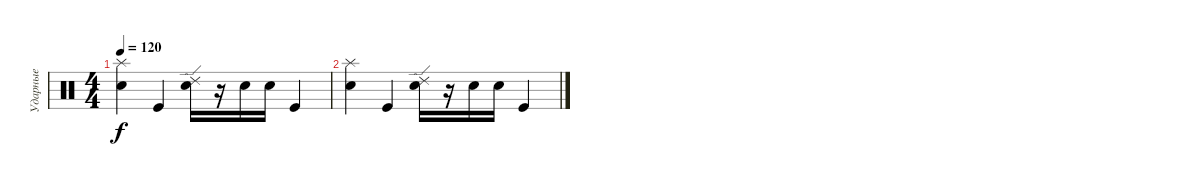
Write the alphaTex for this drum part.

\track ("Ударные" "Ударные") {instrument percussion}
\staff {score}
\articulation defaults
\ts (4 4)
\tempo 120
\clef neutral
\ks c
("Electric Snare (hit)" "Splash (hit)").4{dy f} "Kick (hit)".4 ("Electric Snare (hit)" "Ride (edge) 2").16 r.16 "Electric Snare (hit)".16 "Electric Snare (hit)".16 "Kick (hit)".4 |
("Electric Snare (hit)" "Splash (hit)").4 "Kick (hit)".4 ("Electric Snare (hit)" "Ride (edge) 2").16 r.16 "Electric Snare (hit)".16 "Electric Snare (hit)".16 "Kick (hit)".4
